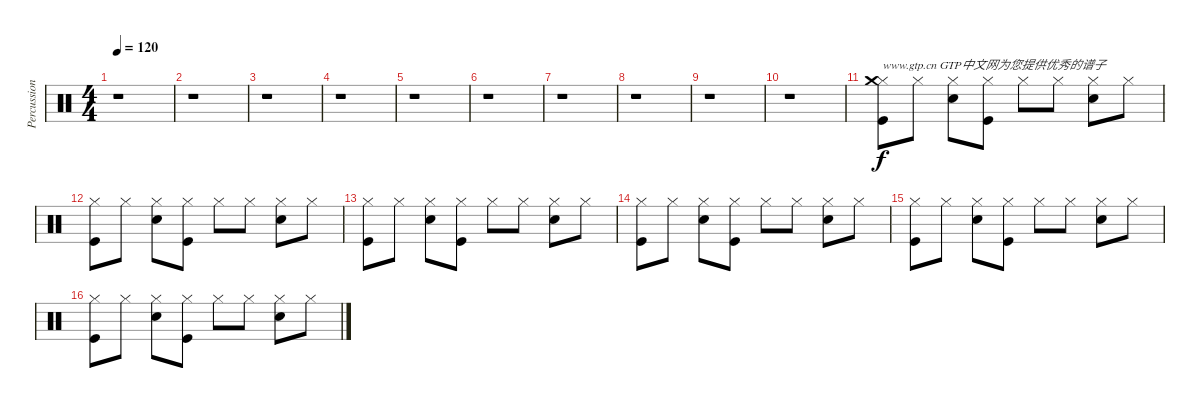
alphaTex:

\track ("Percussion" "Percussion") {instrument percussion}
\staff {score}
\articulation defaults
\ts (4 4)
\tempo 120
\clef neutral
\ks c
r.1{dy f} |
r.1 |
r.1 |
r.1 |
r.1 |
r.1 |
r.1 |
r.1 |
r.1 |
r.1 |
("Kick (hit)" "Hi-Hat (closed)" "Crash medium (hit)").8{txt "www.gtp.cn GTP中文网为您提供优秀的谱子"} "Hi-Hat (closed)".8 ("Electric Snare (hit)" "Hi-Hat (closed)").8 ("Kick (hit)" "Hi-Hat (closed)").8 "Hi-Hat (closed)".8 "Hi-Hat (closed)".8 ("Electric Snare (hit)" "Hi-Hat (closed)").8 "Hi-Hat (closed)".8 |
("Kick (hit)" "Hi-Hat (closed)").8 "Hi-Hat (closed)".8 ("Electric Snare (hit)" "Hi-Hat (closed)").8 ("Kick (hit)" "Hi-Hat (closed)").8 "Hi-Hat (closed)".8 "Hi-Hat (closed)".8 ("Electric Snare (hit)" "Hi-Hat (closed)").8 "Hi-Hat (closed)".8 |
("Kick (hit)" "Hi-Hat (closed)").8 "Hi-Hat (closed)".8 ("Electric Snare (hit)" "Hi-Hat (closed)").8 ("Kick (hit)" "Hi-Hat (closed)").8 "Hi-Hat (closed)".8 "Hi-Hat (closed)".8 ("Electric Snare (hit)" "Hi-Hat (closed)").8 "Hi-Hat (closed)".8 |
("Kick (hit)" "Hi-Hat (closed)").8 "Hi-Hat (closed)".8 ("Electric Snare (hit)" "Hi-Hat (closed)").8 ("Kick (hit)" "Hi-Hat (closed)").8 "Hi-Hat (closed)".8 "Hi-Hat (closed)".8 ("Electric Snare (hit)" "Hi-Hat (closed)").8 "Hi-Hat (closed)".8 |
("Kick (hit)" "Hi-Hat (closed)").8 "Hi-Hat (closed)".8 ("Electric Snare (hit)" "Hi-Hat (closed)").8 ("Kick (hit)" "Hi-Hat (closed)").8 "Hi-Hat (closed)".8 "Hi-Hat (closed)".8 ("Electric Snare (hit)" "Hi-Hat (closed)").8 "Hi-Hat (closed)".8 |
("Kick (hit)" "Hi-Hat (closed)").8 "Hi-Hat (closed)".8 ("Electric Snare (hit)" "Hi-Hat (closed)").8 ("Kick (hit)" "Hi-Hat (closed)").8 "Hi-Hat (closed)".8 "Hi-Hat (closed)".8 ("Electric Snare (hit)" "Hi-Hat (closed)").8 "Hi-Hat (closed)".8
